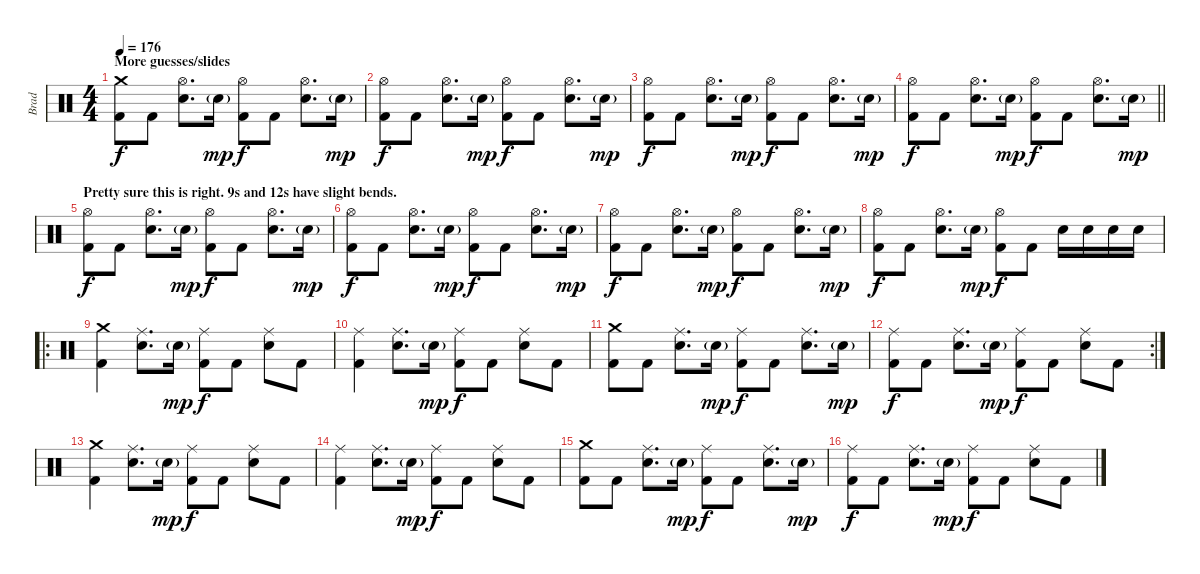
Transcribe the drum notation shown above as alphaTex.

\track ("Brad" "Brad") {instrument percussion}
\staff {score}
\articulation defaults
\ts (4 4)
\section ("" "More guesses/slides")
\tempo 176
\clef neutral
\ks c
("Crash medium (hit)" "Kick (hit) 2").8{dy f} "Kick (hit) 2".8 ("Hi-Hat (open)" "Electric Snare (hit)").8{d} "Electric Snare (hit)"{g}.16{dy mp} ("Hi-Hat (open)" "Kick (hit) 2").8{dy f} "Kick (hit) 2".8 ("Hi-Hat (open)" "Electric Snare (hit)").8{d} "Electric Snare (hit)"{g}.16{dy mp} |
("Hi-Hat (open)" "Kick (hit) 2").8{dy f} "Kick (hit) 2".8 ("Hi-Hat (open)" "Electric Snare (hit)").8{d} "Electric Snare (hit)"{g}.16{dy mp} ("Hi-Hat (open)" "Kick (hit) 2").8{dy f} "Kick (hit) 2".8 ("Hi-Hat (open)" "Electric Snare (hit)").8{d} "Electric Snare (hit)"{g}.16{dy mp} |
("Hi-Hat (open)" "Kick (hit) 2").8{dy f} "Kick (hit) 2".8 ("Hi-Hat (open)" "Electric Snare (hit)").8{d} "Electric Snare (hit)"{g}.16{dy mp} ("Hi-Hat (open)" "Kick (hit) 2").8{dy f} "Kick (hit) 2".8 ("Hi-Hat (open)" "Electric Snare (hit)").8{d} "Electric Snare (hit)"{g}.16{dy mp} |
\barLineRight lightlight
("Hi-Hat (open)" "Kick (hit) 2").8{dy f} "Kick (hit) 2".8 ("Hi-Hat (open)" "Electric Snare (hit)").8{d} "Electric Snare (hit)"{g}.16{dy mp} ("Hi-Hat (open)" "Kick (hit) 2").8{dy f} "Kick (hit) 2".8 ("Hi-Hat (open)" "Electric Snare (hit)").8{d} "Electric Snare (hit)"{g}.16{dy mp} |
\section ("" "Pretty sure this is right. 9s and 12s have slight bends.")
("Hi-Hat (open)" "Kick (hit) 2").8{dy f} "Kick (hit) 2".8 ("Hi-Hat (open)" "Electric Snare (hit)").8{d} "Electric Snare (hit)"{g}.16{dy mp} ("Hi-Hat (open)" "Kick (hit) 2").8{dy f} "Kick (hit) 2".8 ("Hi-Hat (open)" "Electric Snare (hit)").8{d} "Electric Snare (hit)"{g}.16{dy mp} |
("Hi-Hat (open)" "Kick (hit) 2").8{dy f} "Kick (hit) 2".8 ("Hi-Hat (open)" "Electric Snare (hit)").8{d} "Electric Snare (hit)"{g}.16{dy mp} ("Hi-Hat (open)" "Kick (hit) 2").8{dy f} "Kick (hit) 2".8 ("Hi-Hat (open)" "Electric Snare (hit)").8{d} "Electric Snare (hit)"{g}.16{dy mp} |
("Hi-Hat (open)" "Kick (hit) 2").8{dy f} "Kick (hit) 2".8 ("Hi-Hat (open)" "Electric Snare (hit)").8{d} "Electric Snare (hit)"{g}.16{dy mp} ("Hi-Hat (open)" "Kick (hit) 2").8{dy f} "Kick (hit) 2".8 ("Hi-Hat (open)" "Electric Snare (hit)").8{d} "Electric Snare (hit)"{g}.16{dy mp} |
("Hi-Hat (open)" "Kick (hit) 2").8{dy f} "Kick (hit) 2".8 ("Hi-Hat (open)" "Electric Snare (hit)").8{d} "Electric Snare (hit)"{g}.16{dy mp} ("Hi-Hat (open)" "Kick (hit) 2").8{dy f} "Kick (hit) 2".8 "Electric Snare (hit)".16 "Electric Snare (hit)".16 "Electric Snare (hit)".16 "Electric Snare (hit)".16 |
\ro
("Crash medium (hit)" "Kick (hit) 2").4 ("Ride (middle)" "Electric Snare (hit)").8{d} "Electric Snare (hit)"{g}.16{dy mp} ("Ride (middle)" "Kick (hit) 2").8{dy f} "Kick (hit) 2".8 ("Ride (middle)" "Electric Snare (hit)").8 "Kick (hit) 2".8 |
("Ride (middle)" "Kick (hit) 2").4 ("Ride (middle)" "Electric Snare (hit)").8{d} "Electric Snare (hit)"{g}.16{dy mp} ("Ride (middle)" "Kick (hit) 2").8{dy f} "Kick (hit) 2".8 ("Ride (middle)" "Electric Snare (hit)").8 "Kick (hit) 2".8 |
("Crash medium (hit)" "Kick (hit) 2").8 "Kick (hit) 2".8 ("Ride (middle)" "Electric Snare (hit)").8{d} "Electric Snare (hit)"{g}.16{dy mp} ("Ride (middle)" "Kick (hit) 2").8{dy f} "Kick (hit) 2".8 ("Ride (middle)" "Electric Snare (hit)").8{d} "Electric Snare (hit)"{g}.16{dy mp} |
\rc 2
("Ride (middle)" "Kick (hit) 2").8{dy f} "Kick (hit) 2".8 ("Ride (middle)" "Electric Snare (hit)").8{d} "Electric Snare (hit)"{g}.16{dy mp} ("Ride (middle)" "Kick (hit) 2").8{dy f} "Kick (hit) 2".8 ("Ride (middle)" "Electric Snare (hit)").8 "Kick (hit) 2".8 |
("Crash medium (hit)" "Kick (hit) 2").4 ("Ride (middle)" "Electric Snare (hit)").8{d} "Electric Snare (hit)"{g}.16{dy mp} ("Ride (middle)" "Kick (hit) 2").8{dy f} "Kick (hit) 2".8 ("Ride (middle)" "Electric Snare (hit)").8 "Kick (hit) 2".8 |
("Ride (middle)" "Kick (hit) 2").4 ("Ride (middle)" "Electric Snare (hit)").8{d} "Electric Snare (hit)"{g}.16{dy mp} ("Ride (middle)" "Kick (hit) 2").8{dy f} "Kick (hit) 2".8 ("Ride (middle)" "Electric Snare (hit)").8 "Kick (hit) 2".8 |
("Crash medium (hit)" "Kick (hit) 2").8 "Kick (hit) 2".8 ("Ride (middle)" "Electric Snare (hit)").8{d} "Electric Snare (hit)"{g}.16{dy mp} ("Ride (middle)" "Kick (hit) 2").8{dy f} "Kick (hit) 2".8 ("Ride (middle)" "Electric Snare (hit)").8{d} "Electric Snare (hit)"{g}.16{dy mp} |
("Ride (middle)" "Kick (hit) 2").8{dy f} "Kick (hit) 2".8 ("Ride (middle)" "Electric Snare (hit)").8{d} "Electric Snare (hit)"{g}.16{dy mp} ("Ride (middle)" "Kick (hit) 2").8{dy f} "Kick (hit) 2".8 ("Ride (middle)" "Electric Snare (hit)").8 "Kick (hit) 2".8
